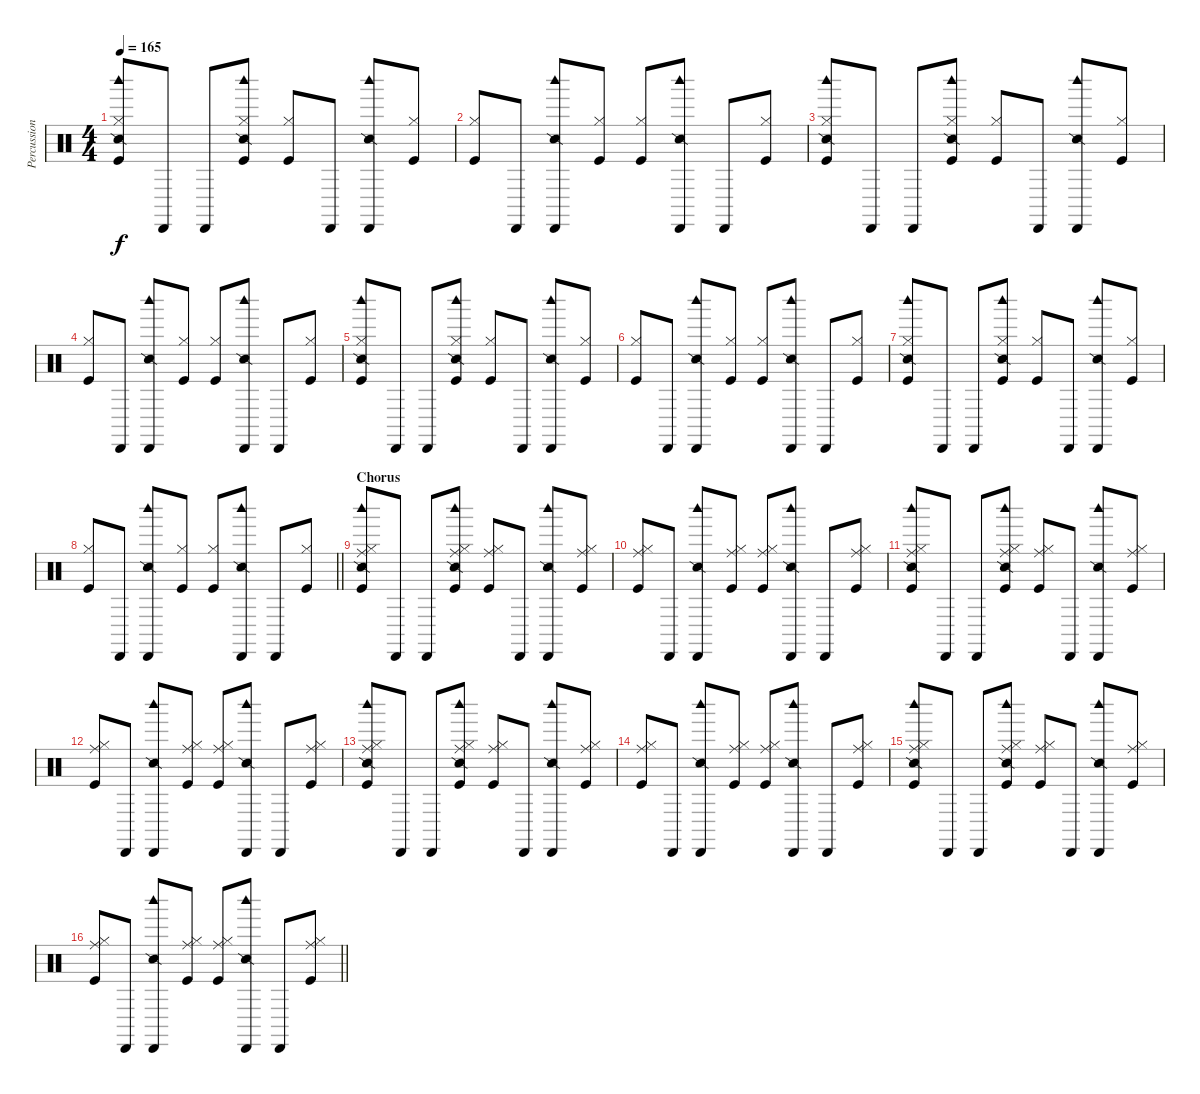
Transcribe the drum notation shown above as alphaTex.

\track ("Percussion" "Percussion") {instrument percussion}
\staff {score}
\articulation defaults
\ts (4 4)
\tempo 165
\clef neutral
\ks c
("Snare (side stick) 2" "Hi-Hat (closed)" "Woodblock high (hit)" "Kick (hit)").8{dy f} "Cabasa (hit)".8 "Cabasa (hit)".8 ("Snare (side stick) 2" "Hi-Hat (closed)" "Woodblock high (hit)" "Kick (hit)").8 ("Hi-Hat (closed)" "Kick (hit)").8 "Cabasa (hit)".8 ("Snare (side stick) 2" "Cabasa (hit)" "Woodblock high (hit)").8 ("Hi-Hat (closed)" "Kick (hit)").8 |
("Hi-Hat (closed)" "Kick (hit)").8 "Cabasa (hit)".8 ("Snare (side stick) 2" "Cabasa (hit)" "Woodblock high (hit)").8 ("Hi-Hat (closed)" "Kick (hit)").8 ("Hi-Hat (closed)" "Kick (hit)").8 ("Snare (side stick) 2" "Cabasa (hit)" "Woodblock high (hit)").8 "Cabasa (hit)".8 ("Hi-Hat (closed)" "Kick (hit)").8 |
("Snare (side stick) 2" "Hi-Hat (closed)" "Woodblock high (hit)" "Kick (hit)").8 "Cabasa (hit)".8 "Cabasa (hit)".8 ("Snare (side stick) 2" "Hi-Hat (closed)" "Woodblock high (hit)" "Kick (hit)").8 ("Hi-Hat (closed)" "Kick (hit)").8 "Cabasa (hit)".8 ("Snare (side stick) 2" "Cabasa (hit)" "Woodblock high (hit)").8 ("Hi-Hat (closed)" "Kick (hit)").8 |
("Hi-Hat (closed)" "Kick (hit)").8 "Cabasa (hit)".8 ("Snare (side stick) 2" "Cabasa (hit)" "Woodblock high (hit)").8 ("Hi-Hat (closed)" "Kick (hit)").8 ("Hi-Hat (closed)" "Kick (hit)").8 ("Snare (side stick) 2" "Cabasa (hit)" "Woodblock high (hit)").8 "Cabasa (hit)".8 ("Hi-Hat (closed)" "Kick (hit)").8 |
("Snare (side stick) 2" "Hi-Hat (closed)" "Woodblock high (hit)" "Kick (hit)").8 "Cabasa (hit)".8 "Cabasa (hit)".8 ("Snare (side stick) 2" "Hi-Hat (closed)" "Woodblock high (hit)" "Kick (hit)").8 ("Hi-Hat (closed)" "Kick (hit)").8 "Cabasa (hit)".8 ("Snare (side stick) 2" "Cabasa (hit)" "Woodblock high (hit)").8 ("Hi-Hat (closed)" "Kick (hit)").8 |
("Hi-Hat (closed)" "Kick (hit)").8 "Cabasa (hit)".8 ("Snare (side stick) 2" "Cabasa (hit)" "Woodblock high (hit)").8 ("Hi-Hat (closed)" "Kick (hit)").8 ("Hi-Hat (closed)" "Kick (hit)").8 ("Snare (side stick) 2" "Cabasa (hit)" "Woodblock high (hit)").8 "Cabasa (hit)".8 ("Hi-Hat (closed)" "Kick (hit)").8 |
("Snare (side stick) 2" "Hi-Hat (closed)" "Woodblock high (hit)" "Kick (hit)").8 "Cabasa (hit)".8 "Cabasa (hit)".8 ("Snare (side stick) 2" "Hi-Hat (closed)" "Woodblock high (hit)" "Kick (hit)").8 ("Hi-Hat (closed)" "Kick (hit)").8 "Cabasa (hit)".8 ("Snare (side stick) 2" "Cabasa (hit)" "Woodblock high (hit)").8 ("Hi-Hat (closed)" "Kick (hit)").8 |
\barLineRight lightlight
("Hi-Hat (closed)" "Kick (hit)").8 "Cabasa (hit)".8 ("Snare (side stick) 2" "Cabasa (hit)" "Woodblock high (hit)").8 ("Hi-Hat (closed)" "Kick (hit)").8 ("Hi-Hat (closed)" "Kick (hit)").8 ("Snare (side stick) 2" "Cabasa (hit)" "Woodblock high (hit)").8 "Cabasa (hit)".8 ("Hi-Hat (closed)" "Kick (hit)").8 |
\section ("" "Chorus")
("Ride (middle)" "Snare (side stick) 2" "Hi-Hat (closed)" "Woodblock high (hit)" "Kick (hit)").8 "Cabasa (hit)".8 "Cabasa (hit)".8 ("Ride (middle)" "Snare (side stick) 2" "Hi-Hat (closed)" "Woodblock high (hit)" "Kick (hit)").8 ("Ride (middle)" "Hi-Hat (closed)" "Kick (hit)").8 "Cabasa (hit)".8 ("Snare (side stick) 2" "Cabasa (hit)" "Woodblock high (hit)").8 ("Ride (middle)" "Hi-Hat (closed)" "Kick (hit)").8 |
("Ride (middle)" "Hi-Hat (closed)" "Kick (hit)").8 "Cabasa (hit)".8 ("Snare (side stick) 2" "Cabasa (hit)" "Woodblock high (hit)").8 ("Ride (middle)" "Hi-Hat (closed)" "Kick (hit)").8 ("Ride (middle)" "Hi-Hat (closed)" "Kick (hit)").8 ("Snare (side stick) 2" "Cabasa (hit)" "Woodblock high (hit)").8 "Cabasa (hit)".8 ("Ride (middle)" "Hi-Hat (closed)" "Kick (hit)").8 |
("Ride (middle)" "Snare (side stick) 2" "Hi-Hat (closed)" "Woodblock high (hit)" "Kick (hit)").8 "Cabasa (hit)".8 "Cabasa (hit)".8 ("Ride (middle)" "Snare (side stick) 2" "Hi-Hat (closed)" "Woodblock high (hit)" "Kick (hit)").8 ("Ride (middle)" "Hi-Hat (closed)" "Kick (hit)").8 "Cabasa (hit)".8 ("Snare (side stick) 2" "Cabasa (hit)" "Woodblock high (hit)").8 ("Ride (middle)" "Hi-Hat (closed)" "Kick (hit)").8 |
("Ride (middle)" "Hi-Hat (closed)" "Kick (hit)").8 "Cabasa (hit)".8 ("Snare (side stick) 2" "Cabasa (hit)" "Woodblock high (hit)").8 ("Ride (middle)" "Hi-Hat (closed)" "Kick (hit)").8 ("Ride (middle)" "Hi-Hat (closed)" "Kick (hit)").8 ("Snare (side stick) 2" "Cabasa (hit)" "Woodblock high (hit)").8 "Cabasa (hit)".8 ("Ride (middle)" "Hi-Hat (closed)" "Kick (hit)").8 |
("Ride (middle)" "Snare (side stick) 2" "Hi-Hat (closed)" "Woodblock high (hit)" "Kick (hit)").8 "Cabasa (hit)".8 "Cabasa (hit)".8 ("Ride (middle)" "Snare (side stick) 2" "Hi-Hat (closed)" "Woodblock high (hit)" "Kick (hit)").8 ("Ride (middle)" "Hi-Hat (closed)" "Kick (hit)").8 "Cabasa (hit)".8 ("Snare (side stick) 2" "Cabasa (hit)" "Woodblock high (hit)").8 ("Ride (middle)" "Hi-Hat (closed)" "Kick (hit)").8 |
("Ride (middle)" "Hi-Hat (closed)" "Kick (hit)").8 "Cabasa (hit)".8 ("Snare (side stick) 2" "Cabasa (hit)" "Woodblock high (hit)").8 ("Ride (middle)" "Hi-Hat (closed)" "Kick (hit)").8 ("Ride (middle)" "Hi-Hat (closed)" "Kick (hit)").8 ("Snare (side stick) 2" "Cabasa (hit)" "Woodblock high (hit)").8 "Cabasa (hit)".8 ("Ride (middle)" "Hi-Hat (closed)" "Kick (hit)").8 |
("Ride (middle)" "Snare (side stick) 2" "Hi-Hat (closed)" "Woodblock high (hit)" "Kick (hit)").8 "Cabasa (hit)".8 "Cabasa (hit)".8 ("Ride (middle)" "Snare (side stick) 2" "Hi-Hat (closed)" "Woodblock high (hit)" "Kick (hit)").8 ("Ride (middle)" "Hi-Hat (closed)" "Kick (hit)").8 "Cabasa (hit)".8 ("Snare (side stick) 2" "Cabasa (hit)" "Woodblock high (hit)").8 ("Ride (middle)" "Hi-Hat (closed)" "Kick (hit)").8 |
\barLineRight lightlight
("Ride (middle)" "Hi-Hat (closed)" "Kick (hit)").8 "Cabasa (hit)".8 ("Snare (side stick) 2" "Cabasa (hit)" "Woodblock high (hit)").8 ("Ride (middle)" "Hi-Hat (closed)" "Kick (hit)").8 ("Ride (middle)" "Hi-Hat (closed)" "Kick (hit)").8 ("Snare (side stick) 2" "Cabasa (hit)" "Woodblock high (hit)").8 "Cabasa (hit)".8 ("Ride (middle)" "Hi-Hat (closed)" "Kick (hit)").8
